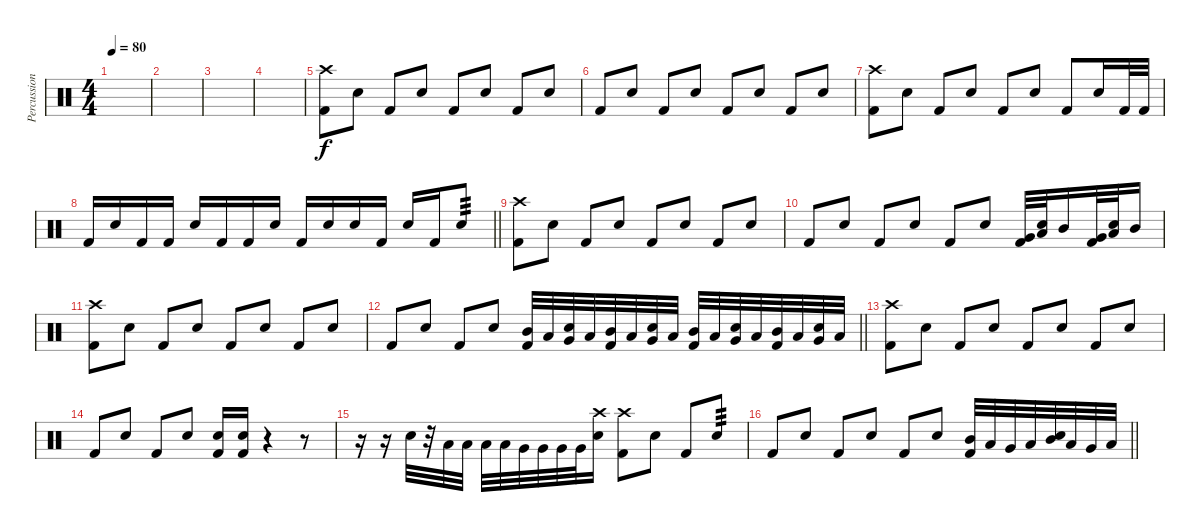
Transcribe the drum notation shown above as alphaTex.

\track ("Percussion" "Percussion") {instrument percussion}
\staff {score}
\articulation defaults
\ts (4 4)
\tempo 80
\clef neutral
\ks c
|
|
|
|
("Kick (hit) 2" "Crash high (hit)").8 "Snare (hit) 2".8 "Kick (hit) 2".8 "Snare (hit) 2".8 "Kick (hit) 2".8 "Snare (hit) 2".8 "Kick (hit) 2".8 "Snare (hit) 2".8 |
"Kick (hit) 2".8 "Snare (hit) 2".8 "Kick (hit) 2".8 "Snare (hit) 2".8 "Kick (hit) 2".8 "Snare (hit) 2".8 "Kick (hit) 2".8 "Snare (hit) 2".8 |
("Kick (hit) 2" "Crash high (hit)").8 "Snare (hit) 2".8 "Kick (hit) 2".8 "Snare (hit) 2".8 "Kick (hit) 2".8 "Snare (hit) 2".8 "Kick (hit) 2".8 "Snare (hit) 2".16 "Kick (hit) 2".32 "Kick (hit) 2".32 |
\barLineRight lightlight "Kick (hit) 2".16 "Electric Snare (hit)".16 "Kick (hit) 2".16 "Kick (hit) 2".16 "Electric Snare (hit)".16 "Kick (hit) 2".16 "Kick (hit) 2".16 "Electric Snare (hit)".16 "Kick (hit) 2".16 "Electric Snare (hit)".16 "Electric Snare (hit)".16 "Kick (hit) 2".16 "Electric Snare (hit)".16 "Kick (hit) 2".16 "Electric Snare (hit)".8{tp 3}
|
("Kick (hit) 2" "Crash high (hit)").8 "Snare (hit) 2".8 "Kick (hit) 2".8 "Snare (hit) 2".8 "Kick (hit) 2".8 "Snare (hit) 2".8 "Kick (hit) 2".8 "Snare (hit) 2".8 |
"Kick (hit) 2".8 "Snare (hit) 2".8 "Kick (hit) 2".8 "Snare (hit) 2".8 "Kick (hit) 2".8 "Snare (hit) 2".8 ("Kick (hit) 2" "Very Low Tom (hit)").32 ("Low Tom (hit)" "Electric Snare (hit)").32 "Mid Tom (hit)".16 ("Kick (hit) 2" "Very Low Tom (hit)").32 ("Low Tom (hit)" "Electric Snare (hit)").32 "Mid Tom (hit)".16 |
("Kick (hit) 2" "Crash high (hit)").8 "Snare (hit) 2".8 "Kick (hit) 2".8 "Snare (hit) 2".8 "Kick (hit) 2".8 "Snare (hit) 2".8 "Kick (hit) 2".8 "Snare (hit) 2".8 |
\barLineRight lightlight "Kick (hit) 2".8 "Snare (hit) 2".8 "Kick (hit) 2".8 "Snare (hit) 2".8
("Kick (hit) 2" "Mid Tom (hit)").32 "Low Tom (hit)".32 ("Snare (hit) 2" "Very Low Tom (hit)").32 "Low Tom (hit)".32 ("Kick (hit) 2" "Mid Tom (hit)").32 "Low Tom (hit)".32 ("Snare (hit) 2" "Very Low Tom (hit)").32 "Low Tom (hit)".32 ("Kick (hit) 2" "Mid Tom (hit)").32 "Low Tom (hit)".32 ("Snare (hit) 2" "Very Low Tom (hit)").32 "Low Tom (hit)".32 ("Kick (hit) 2" "Mid Tom (hit)").32 "Low Tom (hit)".32 ("Snare (hit) 2" "Very Low Tom (hit)").32 "Low Tom (hit)".32 |
("Kick (hit) 2" "Crash high (hit)").8 "Snare (hit) 2".8 "Kick (hit) 2".8 "Snare (hit) 2".8 "Kick (hit) 2".8 "Snare (hit) 2".8 "Kick (hit) 2".8 "Snare (hit) 2".8 |
"Kick (hit) 2".8 "Snare (hit) 2".8 "Kick (hit) 2".8 "Snare (hit) 2".8 ("Kick (hit) 2" "Snare (hit) 2").16 ("Kick (hit) 2" "Snare (hit) 2").16 r.4 r.8 |
r.16 r.16 "Snare (hit) 2".32 r.32 "Low Tom (hit)".32 "Low Tom (hit)".32 "Low Tom (hit)".32 "Low Tom (hit)".32 "Very Low Tom (hit)".32 "Very Low Tom (hit)".32 "Very Low Tom (hit)".32 "Very Low Tom (hit)".32 ("Snare (hit) 2" "Crash high (hit)").16 ("Kick (hit) 2" "Crash high (hit)").8 "Snare (hit) 2".8 "Kick (hit) 2".8 "Snare (hit) 2".8{tp 3} |
\barLineRight lightlight "Kick (hit) 2".8 "Snare (hit) 2".8 "Kick (hit) 2".8 "Snare (hit) 2".8 "Kick (hit) 2".8 "Snare (hit) 2".8
("Kick (hit) 2" "Mid Tom (hit)").32 "Low Tom (hit)".32 "Very Low Tom (hit)".32 "Low Tom (hit)".32 ("Snare (hit) 2" "Mid Tom (hit)").32 "Low Tom (hit)".32 "Very Low Tom (hit)".32 "Low Tom (hit)".32
